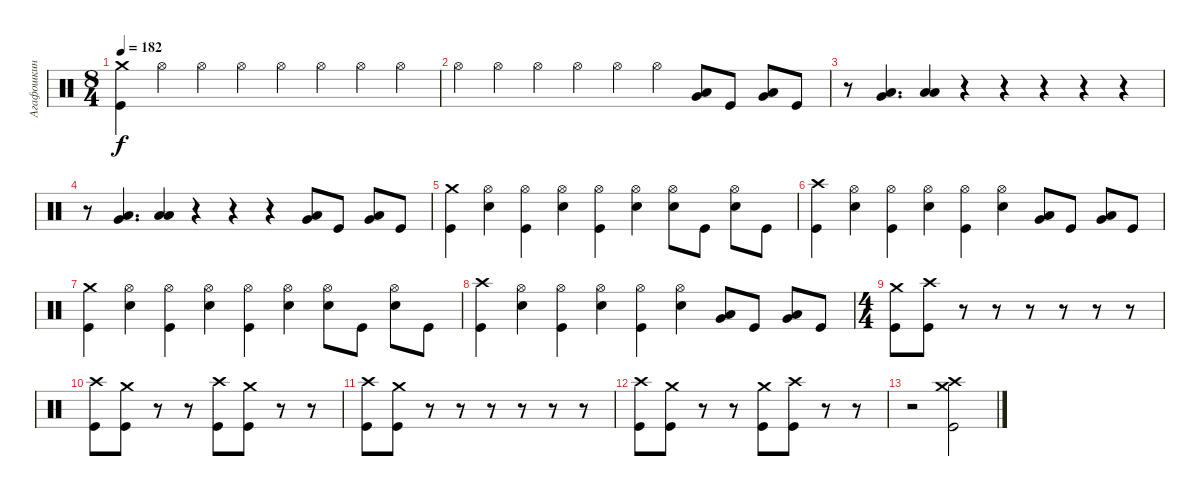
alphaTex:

\track ("Агафошкин" "Агафошкин") {instrument percussion}
\staff {score}
\articulation defaults
\ts (8 4)
\tempo 182
\clef neutral
\ks c
("Crash medium (hit)" "Kick (hit)").4{dy f} "Hi-Hat (open)".4 "Hi-Hat (open)".4 "Hi-Hat (open)".4 "Hi-Hat (open)".4 "Hi-Hat (open)".4 "Hi-Hat (open)".4 "Hi-Hat (open)".4 |
"Hi-Hat (open)".4 "Hi-Hat (open)".4 "Hi-Hat (open)".4 "Hi-Hat (open)".4 "Hi-Hat (open)".4 "Hi-Hat (open)".4 ("Very Low Tom (hit)" "Low Tom (hit)").8 "Kick (hit)".8 ("Low Tom (hit)" "Very Low Tom (hit)").8 "Kick (hit)".8 |
r.8 ("Very Low Tom (hit)" "Low Tom (hit)").4{d} ("Low Tom (hit)" "Low Tom (hit)").4 r.4 r.4 r.4 r.4 r.4 |
r.8 ("Very Low Tom (hit)" "Low Tom (hit)").4{d} ("Low Tom (hit)" "Low Tom (hit)").4 r.4 r.4 r.4 ("Very Low Tom (hit)" "Low Tom (hit)").8 "Kick (hit)".8 ("Very Low Tom (hit)" "Low Tom (hit)").8 "Kick (hit)".8 |
("Crash medium (hit)" "Kick (hit)").4 ("Hi-Hat (open)" "Snare (hit) 2").4 ("Hi-Hat (open)" "Kick (hit)").4 ("Hi-Hat (open)" "Snare (hit) 2").4 ("Hi-Hat (open)" "Kick (hit)").4 ("Hi-Hat (open)" "Snare (hit) 2").4 ("Hi-Hat (open)" "Snare (hit) 2").8 "Kick (hit)".8 ("Hi-Hat (open)" "Snare (hit) 2").8 "Kick (hit)".8 |
("Crash high (hit)" "Kick (hit)").4 ("Hi-Hat (open)" "Snare (hit) 2").4 ("Hi-Hat (open)" "Kick (hit)").4 ("Hi-Hat (open)" "Snare (hit) 2").4 ("Hi-Hat (open)" "Kick (hit)").4 ("Hi-Hat (open)" "Snare (hit) 2").4 ("Very Low Tom (hit)" "Low Tom (hit)").8 "Kick (hit)".8 ("Very Low Tom (hit)" "Low Tom (hit)").8 "Kick (hit)".8 |
("Crash medium (hit)" "Kick (hit)").4 ("Hi-Hat (open)" "Snare (hit) 2").4 ("Hi-Hat (open)" "Kick (hit)").4 ("Hi-Hat (open)" "Snare (hit) 2").4 ("Hi-Hat (open)" "Kick (hit)").4 ("Hi-Hat (open)" "Snare (hit) 2").4 ("Hi-Hat (open)" "Snare (hit) 2").8 "Kick (hit)".8 ("Hi-Hat (open)" "Snare (hit) 2").8 "Kick (hit)".8 |
("Crash high (hit)" "Kick (hit)").4 ("Hi-Hat (open)" "Snare (hit) 2").4 ("Hi-Hat (open)" "Kick (hit)").4 ("Hi-Hat (open)" "Snare (hit) 2").4 ("Hi-Hat (open)" "Kick (hit)").4 ("Hi-Hat (open)" "Snare (hit) 2").4 ("Very Low Tom (hit)" "Low Tom (hit)").8 "Kick (hit)".8 ("Very Low Tom (hit)" "Low Tom (hit)").8 "Kick (hit)".8 |
\ts (4 4)
("Crash medium (hit)" "Kick (hit)").8 ("Crash high (hit)" "Kick (hit)").8 r.8 r.8 r.8 r.8 r.8 r.8 |
("Crash high (hit)" "Kick (hit)").8 ("Crash medium (hit)" "Kick (hit)").8 r.8 r.8 ("Kick (hit)" "Crash high (hit)").8 ("Crash medium (hit)" "Kick (hit)").8 r.8 r.8 |
("Crash high (hit)" "Kick (hit)").8 ("Crash medium (hit)" "Kick (hit)").8 r.8 r.8 r.8 r.8 r.8 r.8 |
("Crash high (hit)" "Kick (hit)").8 ("Crash medium (hit)" "Kick (hit)").8 r.8 r.8 ("Crash medium (hit)" "Kick (hit)").8 ("Crash high (hit)" "Kick (hit)").8 r.8 r.8 |
r.2 ("Crash high (hit)" "Crash medium (hit)" "Kick (hit)").2
